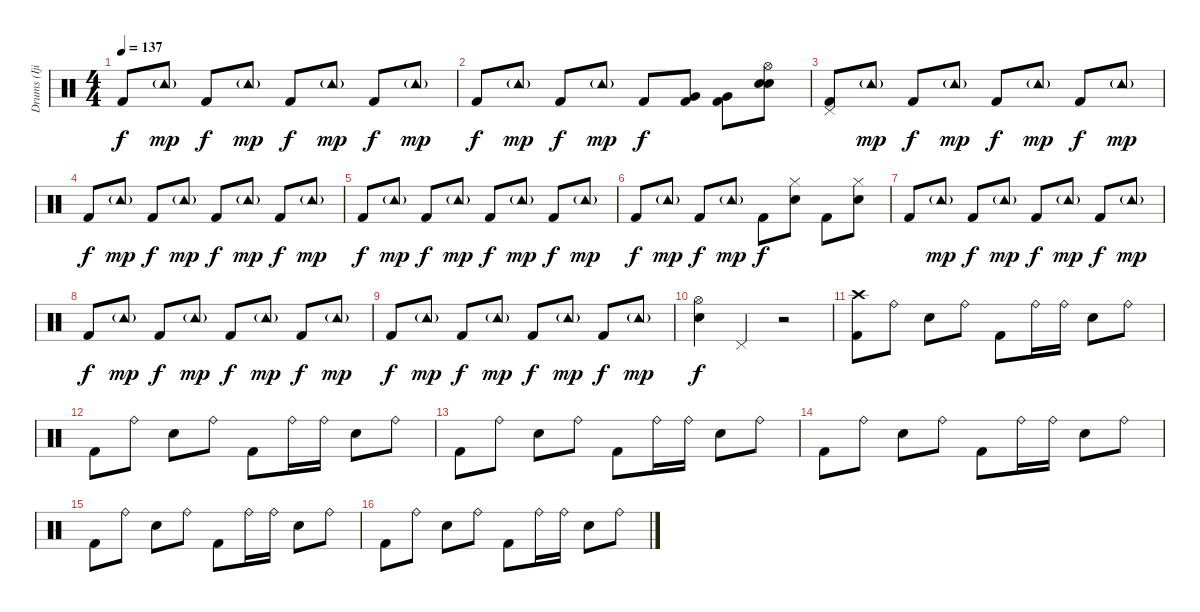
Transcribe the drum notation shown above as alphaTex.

\track ("Drums (Ijichi)" "Drums (Iji") {instrument percussion}
\staff {score}
\articulation defaults
\ts (4 4)
\tempo 137
\clef neutral
\ks c "Kick (hit) 2".8{dy f} "Tambourine (hit)"{g}.8{dy mp} "Kick (hit) 2".8{dy f} "Tambourine (hit)"{g}.8{dy mp} "Kick (hit) 2".8{dy f} "Tambourine (hit)"{g}.8{dy mp} "Kick (hit) 2".8{dy f} "Tambourine (hit)"{g}.8{dy mp}
|
"Kick (hit) 2".8{dy f} "Tambourine (hit)"{g}.8{dy mp} "Kick (hit) 2".8{dy f} "Tambourine (hit)"{g}.8{dy mp} "Kick (hit) 2".8{dy f} ("Very Low Tom (hit)" "Kick (hit) 2").8 ("Very Low Tom (hit)" "Kick (hit) 2").8 ("Hi-Hat (open)" "Snare (hit) 2" "Snare (hit) 2").8 |
("Pedal Hi-Hat (hit)" "Kick (hit) 2").8 "Tambourine (hit)"{g}.8{dy mp} "Kick (hit) 2".8{dy f} "Tambourine (hit)"{g}.8{dy mp} "Kick (hit) 2".8{dy f} "Tambourine (hit)"{g}.8{dy mp} "Kick (hit) 2".8{dy f} "Tambourine (hit)"{g}.8{dy mp} |
"Kick (hit) 2".8{dy f} "Tambourine (hit)"{g}.8{dy mp} "Kick (hit) 2".8{dy f} "Tambourine (hit)"{g}.8{dy mp} "Kick (hit) 2".8{dy f} "Tambourine (hit)"{g}.8{dy mp} "Kick (hit) 2".8{dy f} "Tambourine (hit)"{g}.8{dy mp} |
"Kick (hit) 2".8{dy f} "Tambourine (hit)"{g}.8{dy mp} "Kick (hit) 2".8{dy f} "Tambourine (hit)"{g}.8{dy mp} "Kick (hit) 2".8{dy f} "Tambourine (hit)"{g}.8{dy mp} "Kick (hit) 2".8{dy f} "Tambourine (hit)"{g}.8{dy mp} |
"Kick (hit) 2".8{dy f} "Tambourine (hit)"{g}.8{dy mp} "Kick (hit) 2".8{dy f} "Tambourine (hit)"{g}.8{dy mp} "Kick (hit) 2".8{dy f} ("Hi-Hat (closed)" "Snare (hit) 2").8 "Kick (hit) 2".8 ("Hi-Hat (closed)" "Snare (hit) 2").8 |
"Kick (hit) 2".8 "Tambourine (hit)"{g}.8{dy mp} "Kick (hit) 2".8{dy f} "Tambourine (hit)"{g}.8{dy mp} "Kick (hit) 2".8{dy f} "Tambourine (hit)"{g}.8{dy mp} "Kick (hit) 2".8{dy f} "Tambourine (hit)"{g}.8{dy mp} |
"Kick (hit) 2".8{dy f} "Tambourine (hit)"{g}.8{dy mp} "Kick (hit) 2".8{dy f} "Tambourine (hit)"{g}.8{dy mp} "Kick (hit) 2".8{dy f} "Tambourine (hit)"{g}.8{dy mp} "Kick (hit) 2".8{dy f} "Tambourine (hit)"{g}.8{dy mp} |
"Kick (hit) 2".8{dy f} "Tambourine (hit)"{g}.8{dy mp} "Kick (hit) 2".8{dy f} "Tambourine (hit)"{g}.8{dy mp} "Kick (hit) 2".8{dy f} "Tambourine (hit)"{g}.8{dy mp} "Kick (hit) 2".8{dy f} "Tambourine (hit)"{g}.8{dy mp} |
("Hi-Hat (open)" "Snare (hit) 2").4{dy f} "Pedal Hi-Hat (hit)".4 r.2 |
("Crash high (hit)" "Kick (hit) 2").8 "Ride (bell)".8 "Snare (hit) 2".8 "Ride (bell)".8 "Kick (hit) 2".8 "Ride (bell)".16 "Ride (bell)".16 "Snare (hit) 2".8 "Ride (bell)".8 |
"Kick (hit) 2".8 "Ride (bell)".8 "Snare (hit) 2".8 "Ride (bell)".8 "Kick (hit) 2".8 "Ride (bell)".16 "Ride (bell)".16 "Snare (hit) 2".8 "Ride (bell)".8 |
"Kick (hit) 2".8 "Ride (bell)".8 "Snare (hit) 2".8 "Ride (bell)".8 "Kick (hit) 2".8 "Ride (bell)".16 "Ride (bell)".16 "Snare (hit) 2".8 "Ride (bell)".8 |
"Kick (hit) 2".8 "Ride (bell)".8 "Snare (hit) 2".8 "Ride (bell)".8 "Kick (hit) 2".8 "Ride (bell)".16 "Ride (bell)".16 "Snare (hit) 2".8 "Ride (bell)".8 |
"Kick (hit) 2".8 "Ride (bell)".8 "Snare (hit) 2".8 "Ride (bell)".8 "Kick (hit) 2".8 "Ride (bell)".16 "Ride (bell)".16 "Snare (hit) 2".8 "Ride (bell)".8 |
"Kick (hit) 2".8 "Ride (bell)".8 "Snare (hit) 2".8 "Ride (bell)".8 "Kick (hit) 2".8 "Ride (bell)".16 "Ride (bell)".16 "Snare (hit) 2".8 "Ride (bell)".8
